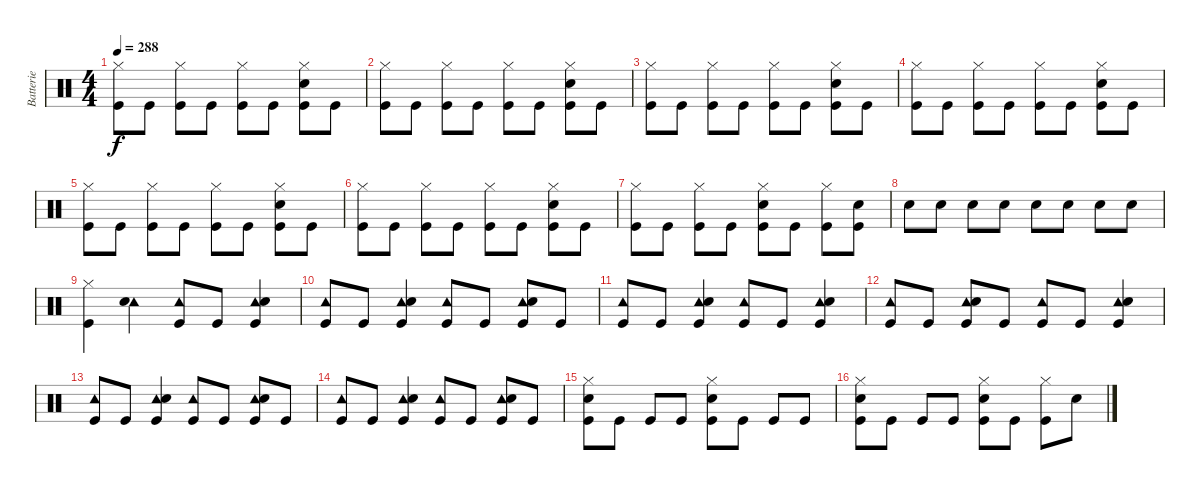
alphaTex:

\track ("Batterie" "Batterie") {instrument percussion}
\staff {score}
\articulation defaults
\ts (4 4)
\tempo 288
\clef neutral
\ks c
("Hi-Hat (closed)" "Kick (hit)").8{dy f} "Kick (hit)".8 ("Hi-Hat (closed)" "Kick (hit)").8 "Kick (hit)".8 ("Hi-Hat (closed)" "Kick (hit)").8 "Kick (hit)".8 ("Hi-Hat (closed)" "Snare (hit) 2" "Kick (hit)").8 "Kick (hit)".8 |
("Hi-Hat (closed)" "Kick (hit)").8 "Kick (hit)".8 ("Hi-Hat (closed)" "Kick (hit)").8 "Kick (hit)".8 ("Hi-Hat (closed)" "Kick (hit)").8 "Kick (hit)".8 ("Hi-Hat (closed)" "Snare (hit) 2" "Kick (hit)").8 "Kick (hit)".8 |
("Hi-Hat (closed)" "Kick (hit)").8 "Kick (hit)".8 ("Hi-Hat (closed)" "Kick (hit)").8 "Kick (hit)".8 ("Hi-Hat (closed)" "Kick (hit)").8 "Kick (hit)".8 ("Hi-Hat (closed)" "Snare (hit) 2" "Kick (hit)").8 "Kick (hit)".8 |
("Hi-Hat (closed)" "Kick (hit)").8 "Kick (hit)".8 ("Hi-Hat (closed)" "Kick (hit)").8 "Kick (hit)".8 ("Hi-Hat (closed)" "Kick (hit)").8 "Kick (hit)".8 ("Hi-Hat (closed)" "Snare (hit) 2" "Kick (hit)").8 "Kick (hit)".8 |
("Hi-Hat (closed)" "Kick (hit)").8 "Kick (hit)".8 ("Hi-Hat (closed)" "Kick (hit)").8 "Kick (hit)".8 ("Hi-Hat (closed)" "Kick (hit)").8 "Kick (hit)".8 ("Hi-Hat (closed)" "Snare (hit) 2" "Kick (hit)").8 "Kick (hit)".8 |
("Hi-Hat (closed)" "Kick (hit)").8 "Kick (hit)".8 ("Hi-Hat (closed)" "Kick (hit)").8 "Kick (hit)".8 ("Hi-Hat (closed)" "Kick (hit)").8 "Kick (hit)".8 ("Hi-Hat (closed)" "Snare (hit) 2" "Kick (hit)").8 "Kick (hit)".8 |
("Hi-Hat (closed)" "Kick (hit)").8 "Kick (hit)".8 ("Hi-Hat (closed)" "Kick (hit)").8 "Kick (hit)".8 ("Hi-Hat (closed)" "Snare (hit) 2" "Kick (hit)").8 "Kick (hit)".8 ("Hi-Hat (closed)" "Kick (hit)").8 ("Snare (hit) 2" "Kick (hit)").8 |
"Snare (hit) 2".8 "Snare (hit) 2".8 "Snare (hit) 2".8 "Snare (hit) 2".8 "Snare (hit) 2".8 "Snare (hit) 2".8 "Snare (hit) 2".8 "Snare (hit) 2".8 |
("Hi-Hat (closed)" "Kick (hit)").4 ("Tambourine (hit)" "Snare (hit) 2").4 ("Tambourine (hit)" "Kick (hit)").8 "Kick (hit)".8 ("Tambourine (hit)" "Snare (hit) 2" "Kick (hit)").4 |
("Tambourine (hit)" "Kick (hit)").8 "Kick (hit)".8 ("Tambourine (hit)" "Snare (hit) 2" "Kick (hit)").4 ("Tambourine (hit)" "Kick (hit)").8 "Kick (hit)".8 ("Tambourine (hit)" "Snare (hit) 2" "Kick (hit)").8 "Kick (hit)".8 |
("Tambourine (hit)" "Kick (hit)").8 "Kick (hit)".8 ("Tambourine (hit)" "Snare (hit) 2" "Kick (hit)").4 ("Tambourine (hit)" "Kick (hit)").8 "Kick (hit)".8 ("Tambourine (hit)" "Snare (hit) 2" "Kick (hit)").4 |
("Tambourine (hit)" "Kick (hit)").8 "Kick (hit)".8 ("Tambourine (hit)" "Snare (hit) 2" "Kick (hit)").8 "Kick (hit)".8 ("Tambourine (hit)" "Kick (hit)").8 "Kick (hit)".8 ("Tambourine (hit)" "Snare (hit) 2" "Kick (hit)").4 |
("Tambourine (hit)" "Kick (hit)").8 "Kick (hit)".8 ("Tambourine (hit)" "Snare (hit) 2" "Kick (hit)").4 ("Tambourine (hit)" "Kick (hit)").8 "Kick (hit)".8 ("Tambourine (hit)" "Snare (hit) 2" "Kick (hit)").8 "Kick (hit)".8 |
("Tambourine (hit)" "Kick (hit)").8 "Kick (hit)".8 ("Tambourine (hit)" "Snare (hit) 2" "Kick (hit)").4 ("Tambourine (hit)" "Kick (hit)").8 "Kick (hit)".8 ("Tambourine (hit)" "Snare (hit) 2" "Kick (hit)").8 "Kick (hit)".8 |
("Hi-Hat (closed)" "Snare (hit) 2" "Kick (hit)").8 "Kick (hit)".8 "Kick (hit)".8 "Kick (hit)".8 ("Hi-Hat (closed)" "Snare (hit) 2" "Kick (hit)").8 "Kick (hit)".8 "Kick (hit)".8 "Kick (hit)".8 |
("Hi-Hat (closed)" "Snare (hit) 2" "Kick (hit)").8 "Kick (hit)".8 "Kick (hit)".8 "Kick (hit)".8 ("Hi-Hat (closed)" "Snare (hit) 2" "Kick (hit)").8 "Kick (hit)".8 ("Hi-Hat (closed)" "Kick (hit)").8 "Snare (hit) 2".8
